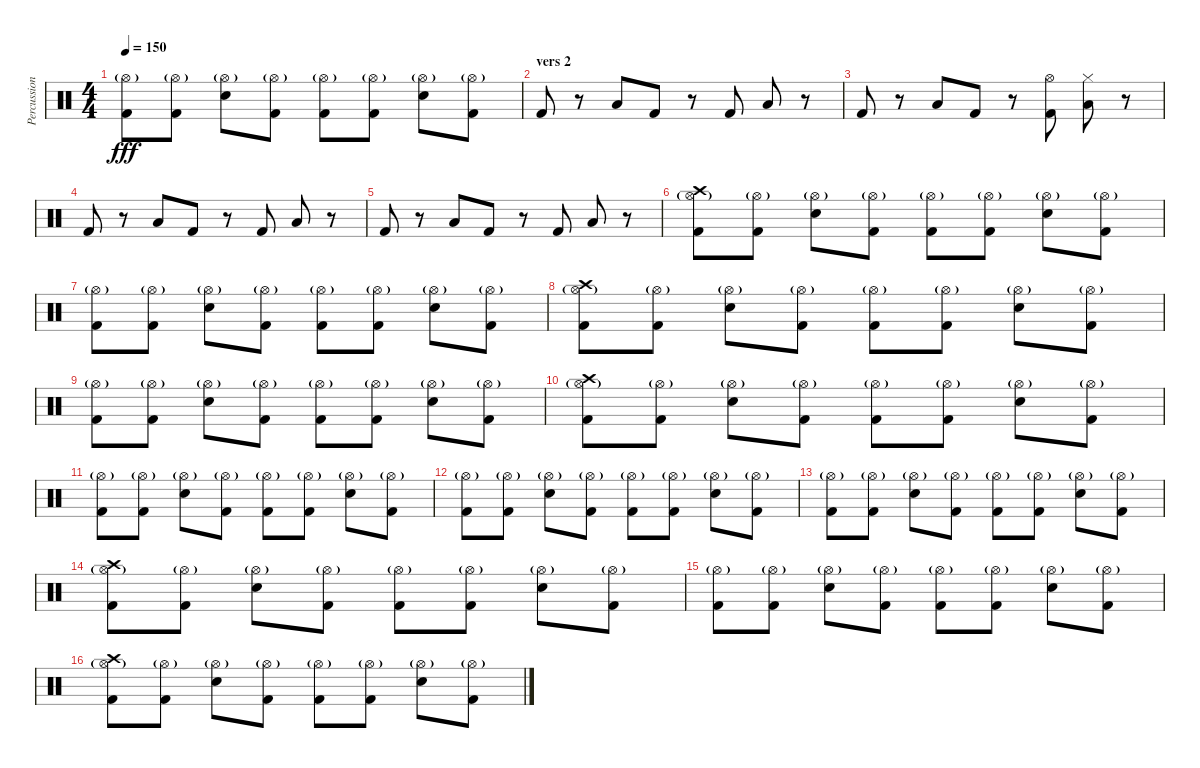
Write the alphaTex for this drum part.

\track ("Percussion" "Percussion") {instrument percussion}
\staff {score}
\articulation defaults
\ts (4 4)
\tempo 150
\clef neutral
\ks c
("Hi-Hat (open)"{g} "Kick (hit) 2").8{dy fff} ("Hi-Hat (open)"{g} "Kick (hit) 2").8 ("Hi-Hat (open)"{g} "Snare (hit) 2").8 ("Hi-Hat (open)"{g} "Kick (hit) 2").8 ("Hi-Hat (open)"{g} "Kick (hit) 2").8 ("Hi-Hat (open)"{g} "Kick (hit) 2").8 ("Hi-Hat (open)"{g} "Snare (hit) 2").8 ("Hi-Hat (open)"{g} "Kick (hit) 2").8 |
\section ("" "vers 2")
"Kick (hit) 2".8 r.8 "Low Floor Tom (hit)".8 "Kick (hit) 2".8 r.8 "Kick (hit) 2".8 "Low Floor Tom (hit)".8 r.8 |
"Kick (hit) 2".8 r.8 "Low Floor Tom (hit)".8 "Kick (hit) 2".8 r.8 ("Hi-Hat (open)" "Kick (hit) 2").8 ("Hi-Hat (closed)" "Low Floor Tom (hit)").8 r.8 |
"Kick (hit) 2".8 r.8 "Low Floor Tom (hit)".8 "Kick (hit) 2".8 r.8 "Kick (hit) 2".8 "Low Floor Tom (hit)".8 r.8 |
"Kick (hit) 2".8 r.8 "Low Floor Tom (hit)".8 "Kick (hit) 2".8 r.8 "Kick (hit) 2".8 "Low Floor Tom (hit)".8 r.8 |
("Crash high (hit)" "Hi-Hat (open)"{g} "Kick (hit) 2").8 ("Hi-Hat (open)"{g} "Kick (hit) 2").8 ("Hi-Hat (open)"{g} "Snare (hit) 2").8 ("Hi-Hat (open)"{g} "Kick (hit) 2").8 ("Hi-Hat (open)"{g} "Kick (hit) 2").8 ("Hi-Hat (open)"{g} "Kick (hit) 2").8 ("Hi-Hat (open)"{g} "Snare (hit) 2").8 ("Hi-Hat (open)"{g} "Kick (hit) 2").8 |
("Hi-Hat (open)"{g} "Kick (hit) 2").8 ("Hi-Hat (open)"{g} "Kick (hit) 2").8 ("Hi-Hat (open)"{g} "Snare (hit) 2").8 ("Hi-Hat (open)"{g} "Kick (hit) 2").8 ("Hi-Hat (open)"{g} "Kick (hit) 2").8 ("Hi-Hat (open)"{g} "Kick (hit) 2").8 ("Hi-Hat (open)"{g} "Snare (hit) 2").8 ("Hi-Hat (open)"{g} "Kick (hit) 2").8 |
("Crash high (hit)" "Hi-Hat (open)"{g} "Kick (hit) 2").8 ("Hi-Hat (open)"{g} "Kick (hit) 2").8 ("Hi-Hat (open)"{g} "Snare (hit) 2").8 ("Hi-Hat (open)"{g} "Kick (hit) 2").8 ("Hi-Hat (open)"{g} "Kick (hit) 2").8 ("Hi-Hat (open)"{g} "Kick (hit) 2").8 ("Hi-Hat (open)"{g} "Snare (hit) 2").8 ("Hi-Hat (open)"{g} "Kick (hit) 2").8 |
("Hi-Hat (open)"{g} "Kick (hit) 2").8 ("Hi-Hat (open)"{g} "Kick (hit) 2").8 ("Hi-Hat (open)"{g} "Snare (hit) 2").8 ("Hi-Hat (open)"{g} "Kick (hit) 2").8 ("Hi-Hat (open)"{g} "Kick (hit) 2").8 ("Hi-Hat (open)"{g} "Kick (hit) 2").8 ("Hi-Hat (open)"{g} "Snare (hit) 2").8 ("Hi-Hat (open)"{g} "Kick (hit) 2").8 |
("Crash high (hit)" "Hi-Hat (open)"{g} "Kick (hit) 2").8 ("Hi-Hat (open)"{g} "Kick (hit) 2").8 ("Hi-Hat (open)"{g} "Snare (hit) 2").8 ("Hi-Hat (open)"{g} "Kick (hit) 2").8 ("Hi-Hat (open)"{g} "Kick (hit) 2").8 ("Hi-Hat (open)"{g} "Kick (hit) 2").8 ("Hi-Hat (open)"{g} "Snare (hit) 2").8 ("Hi-Hat (open)"{g} "Kick (hit) 2").8 |
("Hi-Hat (open)"{g} "Kick (hit) 2").8 ("Hi-Hat (open)"{g} "Kick (hit) 2").8 ("Hi-Hat (open)"{g} "Snare (hit) 2").8 ("Hi-Hat (open)"{g} "Kick (hit) 2").8 ("Hi-Hat (open)"{g} "Kick (hit) 2").8 ("Hi-Hat (open)"{g} "Kick (hit) 2").8 ("Hi-Hat (open)"{g} "Snare (hit) 2").8 ("Hi-Hat (open)"{g} "Kick (hit) 2").8 |
("Hi-Hat (open)"{g} "Kick (hit) 2").8 ("Hi-Hat (open)"{g} "Kick (hit) 2").8 ("Hi-Hat (open)"{g} "Snare (hit) 2").8 ("Hi-Hat (open)"{g} "Kick (hit) 2").8 ("Hi-Hat (open)"{g} "Kick (hit) 2").8 ("Hi-Hat (open)"{g} "Kick (hit) 2").8 ("Hi-Hat (open)"{g} "Snare (hit) 2").8 ("Hi-Hat (open)"{g} "Kick (hit) 2").8 |
("Hi-Hat (open)"{g} "Kick (hit) 2").8 ("Hi-Hat (open)"{g} "Kick (hit) 2").8 ("Hi-Hat (open)"{g} "Snare (hit) 2").8 ("Hi-Hat (open)"{g} "Kick (hit) 2").8 ("Hi-Hat (open)"{g} "Kick (hit) 2").8 ("Hi-Hat (open)"{g} "Kick (hit) 2").8 ("Hi-Hat (open)"{g} "Snare (hit) 2").8 ("Hi-Hat (open)"{g} "Kick (hit) 2").8 |
("Crash high (hit)" "Hi-Hat (open)"{g} "Kick (hit) 2").8 ("Hi-Hat (open)"{g} "Kick (hit) 2").8 ("Hi-Hat (open)"{g} "Snare (hit) 2").8 ("Hi-Hat (open)"{g} "Kick (hit) 2").8 ("Hi-Hat (open)"{g} "Kick (hit) 2").8 ("Hi-Hat (open)"{g} "Kick (hit) 2").8 ("Hi-Hat (open)"{g} "Snare (hit) 2").8 ("Hi-Hat (open)"{g} "Kick (hit) 2").8 |
("Hi-Hat (open)"{g} "Kick (hit) 2").8 ("Hi-Hat (open)"{g} "Kick (hit) 2").8 ("Hi-Hat (open)"{g} "Snare (hit) 2").8 ("Hi-Hat (open)"{g} "Kick (hit) 2").8 ("Hi-Hat (open)"{g} "Kick (hit) 2").8 ("Hi-Hat (open)"{g} "Kick (hit) 2").8 ("Hi-Hat (open)"{g} "Snare (hit) 2").8 ("Hi-Hat (open)"{g} "Kick (hit) 2").8 |
("Crash high (hit)" "Hi-Hat (open)"{g} "Kick (hit) 2").8 ("Hi-Hat (open)"{g} "Kick (hit) 2").8 ("Hi-Hat (open)"{g} "Snare (hit) 2").8 ("Hi-Hat (open)"{g} "Kick (hit) 2").8 ("Hi-Hat (open)"{g} "Kick (hit) 2").8 ("Hi-Hat (open)"{g} "Kick (hit) 2").8 ("Hi-Hat (open)"{g} "Snare (hit) 2").8 ("Hi-Hat (open)"{g} "Kick (hit) 2").8
